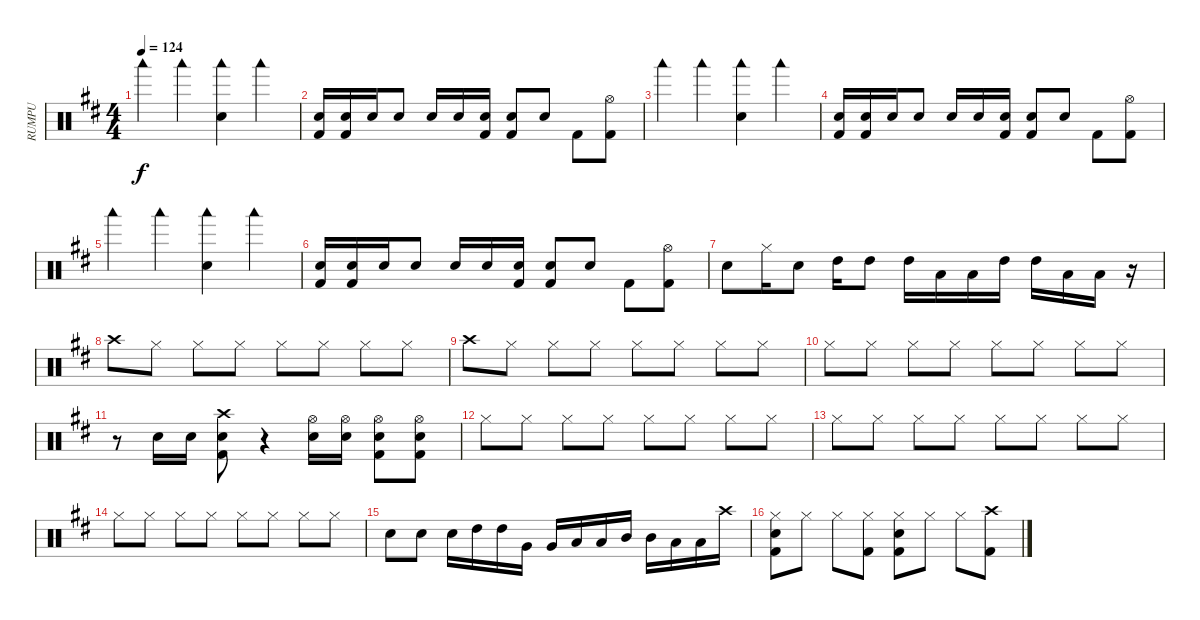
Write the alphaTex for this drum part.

\track ("RUMPU" "RUMPU") {instrument percussion}
\staff {score}
\articulation defaults
\ts (4 4)
\tempo 124
\clef neutral
\ks d "Woodblock low (hit)".4{dy f} "Woodblock low (hit)".4
("Woodblock low (hit)" "Electric Snare (hit)").4 "Woodblock low (hit)".4 |
("Electric Snare (hit)" "Kick (hit) 2").16 ("Electric Snare (hit)" "Kick (hit) 2").16 "Electric Snare (hit)".16 "Electric Snare (hit)".8 "Electric Snare (hit)".16 "Electric Snare (hit)".16 ("Electric Snare (hit)" "Kick (hit) 2").16 ("Electric Snare (hit)" "Kick (hit) 2").8 "Electric Snare (hit)".8 "Kick (hit) 2".8 ("Hi-Hat (open)" "Kick (hit) 2").8 |
"Woodblock low (hit)".4 "Woodblock low (hit)".4 ("Woodblock low (hit)" "Electric Snare (hit)").4 "Woodblock low (hit)".4 |
("Electric Snare (hit)" "Kick (hit) 2").16 ("Electric Snare (hit)" "Kick (hit) 2").16 "Electric Snare (hit)".16 "Electric Snare (hit)".8 "Electric Snare (hit)".16 "Electric Snare (hit)".16 ("Electric Snare (hit)" "Kick (hit) 2").16 ("Electric Snare (hit)" "Kick (hit) 2").8 "Electric Snare (hit)".8 "Kick (hit) 2".8 ("Hi-Hat (open)" "Kick (hit) 2").8 |
"Woodblock low (hit)".4 "Woodblock low (hit)".4 ("Woodblock low (hit)" "Electric Snare (hit)").4 "Woodblock low (hit)".4 |
("Electric Snare (hit)" "Kick (hit) 2").16 ("Electric Snare (hit)" "Kick (hit) 2").16 "Electric Snare (hit)".16 "Electric Snare (hit)".8 "Electric Snare (hit)".16 "Electric Snare (hit)".16 ("Electric Snare (hit)" "Kick (hit) 2").16 ("Electric Snare (hit)" "Kick (hit) 2").8 "Electric Snare (hit)".8 "Kick (hit) 2".8 ("Hi-Hat (open)" "Kick (hit) 2").8 |
"Electric Snare (hit)".8 "Hi-Hat (closed)".16 "Electric Snare (hit)".8 "High Tom (hit)".16 "High Tom (hit)".8 "High Tom (hit)".16 "Low Tom (hit)".16 "Low Tom (hit)".16 "High Tom (hit)".16 "High Tom (hit)".16 "Low Floor Tom (hit)".16 "Low Floor Tom (hit)".16 r.16 |
"Crash high (hit)".8 "Hi-Hat (closed)".8 "Hi-Hat (closed)".8 "Hi-Hat (closed)".8 "Hi-Hat (closed)".8 "Hi-Hat (closed)".8 "Hi-Hat (closed)".8 "Hi-Hat (closed)".8 |
"Crash high (hit)".8 "Hi-Hat (closed)".8 "Hi-Hat (closed)".8 "Hi-Hat (closed)".8 "Hi-Hat (closed)".8 "Hi-Hat (closed)".8 "Hi-Hat (closed)".8 "Hi-Hat (closed)".8 |
"Hi-Hat (closed)".8 "Hi-Hat (closed)".8 "Hi-Hat (closed)".8 "Hi-Hat (closed)".8 "Hi-Hat (closed)".8 "Hi-Hat (closed)".8 "Hi-Hat (closed)".8 "Hi-Hat (closed)".8 |
r.8 "Electric Snare (hit)".16 "Electric Snare (hit)".16 ("Crash high (hit)" "Electric Snare (hit)" "Kick (hit) 2").8 r.4 ("Hi-Hat (open)" "Electric Snare (hit)").16 ("Hi-Hat (open)" "Electric Snare (hit)").16 ("Hi-Hat (open)" "Electric Snare (hit)" "Kick (hit) 2").8 ("Hi-Hat (open)" "Electric Snare (hit)" "Kick (hit) 2").8 |
"Hi-Hat (closed)".8 "Hi-Hat (closed)".8 "Hi-Hat (closed)".8 "Hi-Hat (closed)".8 "Hi-Hat (closed)".8 "Hi-Hat (closed)".8 "Hi-Hat (closed)".8 "Hi-Hat (closed)".8 |
"Hi-Hat (closed)".8 "Hi-Hat (closed)".8 "Hi-Hat (closed)".8 "Hi-Hat (closed)".8 "Hi-Hat (closed)".8 "Hi-Hat (closed)".8 "Hi-Hat (closed)".8 "Hi-Hat (closed)".8 |
"Hi-Hat (closed)".8 "Hi-Hat (closed)".8 "Hi-Hat (closed)".8 "Hi-Hat (closed)".8 "Hi-Hat (closed)".8 "Hi-Hat (closed)".8 "Hi-Hat (closed)".8 "Hi-Hat (closed)".8 |
"Electric Snare (hit)".8 "Electric Snare (hit)".8 "Electric Snare (hit)".16 "High Tom (hit)".16 "High Tom (hit)".16 "Very Low Tom (hit)".16 "Very Low Tom (hit)".16 "Low Tom (hit)".16 "Low Tom (hit)".16 "Mid Tom (hit)".16 "Mid Tom (hit)".16 "Low Floor Tom (hit)".16 "Low Floor Tom (hit)".16 "Crash high (hit)".16 |
("Hi-Hat (closed)" "Kick (hit) 2" "Electric Snare (hit)").8 "Hi-Hat (closed)".8 "Hi-Hat (closed)".8 ("Hi-Hat (closed)" "Kick (hit) 2").8 ("Hi-Hat (closed)" "Kick (hit) 2" "Electric Snare (hit)").8 "Hi-Hat (closed)".8 "Hi-Hat (closed)".8 ("Crash high (hit)" "Kick (hit) 2").8
